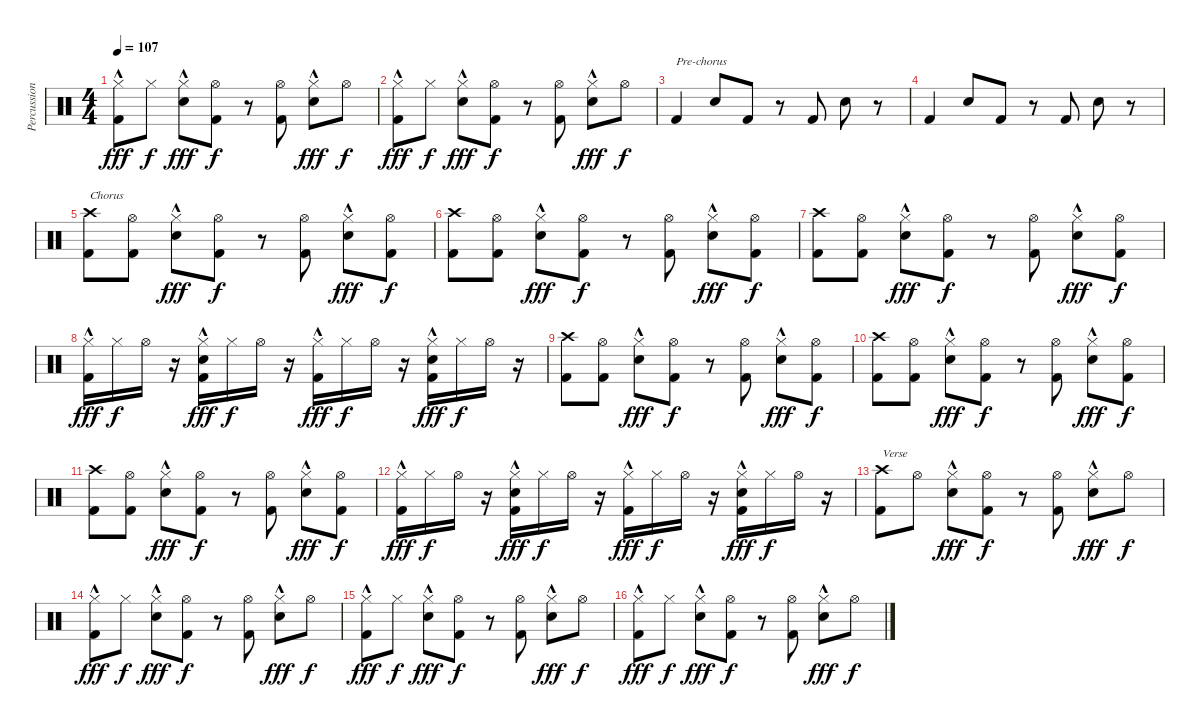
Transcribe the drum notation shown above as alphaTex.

\track ("Percussion" "Percussion") {instrument percussion}
\staff {score}
\articulation defaults
\ts (4 4)
\tempo 107
\clef neutral
\ks c
("Hi-Hat (closed)"{hac} "Kick (hit) 2").8{dy fff} "Hi-Hat (closed)".8{dy f} ("Hi-Hat (closed)"{hac} "Snare (hit) 2").8{dy fff} ("Hi-Hat (open)" "Kick (hit) 2").8{dy f} r.8 ("Hi-Hat (open)" "Kick (hit) 2").8 ("Hi-Hat (closed)"{hac} "Snare (hit) 2").8{dy fff} "Hi-Hat (open)".8{dy f} |
("Hi-Hat (closed)"{hac} "Kick (hit) 2").8{dy fff} "Hi-Hat (closed)".8{dy f} ("Hi-Hat (closed)"{hac} "Snare (hit) 2").8{dy fff} ("Hi-Hat (open)" "Kick (hit) 2").8{dy f} r.8 ("Hi-Hat (open)" "Kick (hit) 2").8 ("Hi-Hat (closed)"{hac} "Snare (hit) 2").8{dy fff} "Hi-Hat (open)".8{dy f} |
"Kick (hit) 2".4{txt "Pre-chorus"} "Snare (hit) 2".8 "Kick (hit) 2".8 r.8 "Kick (hit) 2".8 "Snare (hit) 2".8 r.8 |
"Kick (hit) 2".4 "Snare (hit) 2".8 "Kick (hit) 2".8 r.8 "Kick (hit) 2".8 "Snare (hit) 2".8 r.8 |
("Crash high (hit)" "Kick (hit) 2").8{txt "Chorus"} ("Hi-Hat (open)" "Kick (hit) 2").8 ("Hi-Hat (closed)"{hac} "Snare (hit) 2").8{dy fff} ("Hi-Hat (open)" "Kick (hit) 2").8{dy f} r.8 ("Hi-Hat (open)" "Kick (hit) 2").8 ("Hi-Hat (closed)"{hac} "Snare (hit) 2").8{dy fff} ("Hi-Hat (open)" "Kick (hit) 2").8{dy f} |
("Crash high (hit)" "Kick (hit) 2").8 ("Hi-Hat (open)" "Kick (hit) 2").8 ("Hi-Hat (closed)"{hac} "Snare (hit) 2").8{dy fff} ("Hi-Hat (open)" "Kick (hit) 2").8{dy f} r.8 ("Hi-Hat (open)" "Kick (hit) 2").8 ("Hi-Hat (closed)"{hac} "Snare (hit) 2").8{dy fff} ("Hi-Hat (open)" "Kick (hit) 2").8{dy f} |
("Crash high (hit)" "Kick (hit) 2").8 ("Hi-Hat (open)" "Kick (hit) 2").8 ("Hi-Hat (closed)"{hac} "Snare (hit) 2").8{dy fff} ("Hi-Hat (open)" "Kick (hit) 2").8{dy f} r.8 ("Hi-Hat (open)" "Kick (hit) 2").8 ("Hi-Hat (closed)"{hac} "Snare (hit) 2").8{dy fff} ("Hi-Hat (open)" "Kick (hit) 2").8{dy f} |
("Hi-Hat (closed)"{hac} "Kick (hit) 2").16{dy fff} "Hi-Hat (closed)".16{dy f} "Hi-Hat (open)".16 r.16 ("Hi-Hat (closed)"{hac} "Snare (hit) 2" "Kick (hit) 2").16{dy fff} "Hi-Hat (closed)".16{dy f} "Hi-Hat (open)".16 r.16 ("Hi-Hat (closed)"{hac} "Kick (hit) 2").16{dy fff} "Hi-Hat (closed)".16{dy f} "Hi-Hat (open)".16 r.16 ("Hi-Hat (closed)"{hac} "Snare (hit) 2" "Kick (hit) 2").16{dy fff} "Hi-Hat (closed)".16{dy f} "Hi-Hat (open)".16 r.16 |
("Crash high (hit)" "Kick (hit) 2").8 ("Hi-Hat (open)" "Kick (hit) 2").8 ("Hi-Hat (closed)"{hac} "Snare (hit) 2").8{dy fff} ("Hi-Hat (open)" "Kick (hit) 2").8{dy f} r.8 ("Hi-Hat (open)" "Kick (hit) 2").8 ("Hi-Hat (closed)"{hac} "Snare (hit) 2").8{dy fff} ("Hi-Hat (open)" "Kick (hit) 2").8{dy f} |
("Crash high (hit)" "Kick (hit) 2").8 ("Hi-Hat (open)" "Kick (hit) 2").8 ("Hi-Hat (closed)"{hac} "Snare (hit) 2").8{dy fff} ("Hi-Hat (open)" "Kick (hit) 2").8{dy f} r.8 ("Hi-Hat (open)" "Kick (hit) 2").8 ("Hi-Hat (closed)"{hac} "Snare (hit) 2").8{dy fff} ("Hi-Hat (open)" "Kick (hit) 2").8{dy f} |
("Crash high (hit)" "Kick (hit) 2").8 ("Hi-Hat (open)" "Kick (hit) 2").8 ("Hi-Hat (closed)"{hac} "Snare (hit) 2").8{dy fff} ("Hi-Hat (open)" "Kick (hit) 2").8{dy f} r.8 ("Hi-Hat (open)" "Kick (hit) 2").8 ("Hi-Hat (closed)"{hac} "Snare (hit) 2").8{dy fff} ("Hi-Hat (open)" "Kick (hit) 2").8{dy f} |
("Hi-Hat (closed)"{hac} "Kick (hit) 2").16{dy fff} "Hi-Hat (closed)".16{dy f} "Hi-Hat (open)".16 r.16 ("Hi-Hat (closed)"{hac} "Snare (hit) 2" "Kick (hit) 2").16{dy fff} "Hi-Hat (closed)".16{dy f} "Hi-Hat (open)".16 r.16 ("Hi-Hat (closed)"{hac} "Kick (hit) 2").16{dy fff} "Hi-Hat (closed)".16{dy f} "Hi-Hat (open)".16 r.16 ("Hi-Hat (closed)"{hac} "Snare (hit) 2" "Kick (hit) 2").16{dy fff} "Hi-Hat (closed)".16{dy f} "Hi-Hat (open)".16 r.16 |
("Crash high (hit)" "Kick (hit) 2").8{txt "Verse"} "Hi-Hat (open)".8 ("Hi-Hat (closed)"{hac} "Snare (hit) 2").8{dy fff} ("Hi-Hat (open)" "Kick (hit) 2").8{dy f} r.8 ("Hi-Hat (open)" "Kick (hit) 2").8 ("Hi-Hat (closed)"{hac} "Snare (hit) 2").8{dy fff} "Hi-Hat (open)".8{dy f} |
("Hi-Hat (closed)"{hac} "Kick (hit) 2").8{dy fff} "Hi-Hat (closed)".8{dy f} ("Hi-Hat (closed)"{hac} "Snare (hit) 2").8{dy fff} ("Hi-Hat (open)" "Kick (hit) 2").8{dy f} r.8 ("Hi-Hat (open)" "Kick (hit) 2").8 ("Hi-Hat (closed)"{hac} "Snare (hit) 2").8{dy fff} "Hi-Hat (open)".8{dy f} |
("Hi-Hat (closed)"{hac} "Kick (hit) 2").8{dy fff} "Hi-Hat (closed)".8{dy f} ("Hi-Hat (closed)"{hac} "Snare (hit) 2").8{dy fff} ("Hi-Hat (open)" "Kick (hit) 2").8{dy f} r.8 ("Hi-Hat (open)" "Kick (hit) 2").8 ("Hi-Hat (closed)"{hac} "Snare (hit) 2").8{dy fff} "Hi-Hat (open)".8{dy f} |
("Hi-Hat (closed)"{hac} "Kick (hit) 2").8{dy fff} "Hi-Hat (closed)".8{dy f} ("Hi-Hat (closed)"{hac} "Snare (hit) 2").8{dy fff} ("Hi-Hat (open)" "Kick (hit) 2").8{dy f} r.8 ("Hi-Hat (open)" "Kick (hit) 2").8 ("Hi-Hat (closed)"{hac} "Snare (hit) 2").8{dy fff} "Hi-Hat (open)".8{dy f}
